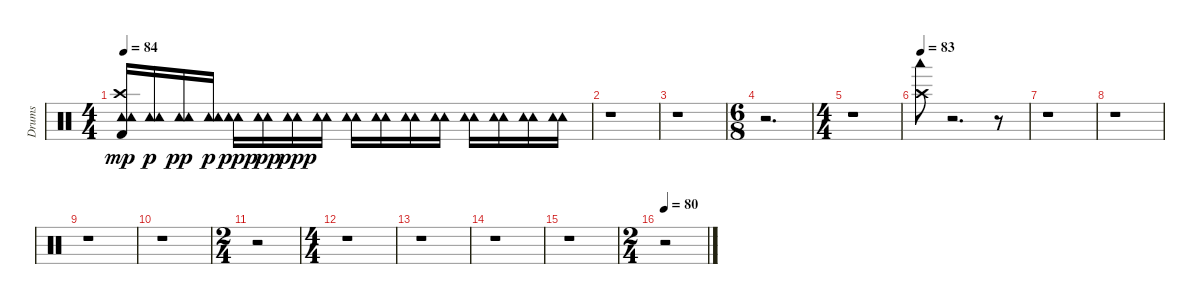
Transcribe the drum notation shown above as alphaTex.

\track ("Drums" "Drums") {instrument percussion}
\staff {score}
\articulation defaults
\ts (4 4)
\tempo 84
\clef neutral
\ks c
("Kick (hit) 2" "Crash high (hit)" "Tambourine (hit)" "Tambourine (hit)").16{dy mp} ("Tambourine (hit)" "Tambourine (hit)").16{dy p} ("Tambourine (hit)" "Tambourine (hit)").16{dy pp} ("Tambourine (hit)" "Tambourine (hit)").16{dy p} ("Tambourine (hit)" "Tambourine (hit)").16{dy ppp} ("Tambourine (hit)" "Tambourine (hit)").16{dy pp} ("Tambourine (hit)" "Tambourine (hit)").16{dy ppp} ("Tambourine (hit)" "Tambourine (hit)").16 ("Tambourine (hit)" "Tambourine (hit)").16 ("Tambourine (hit)" "Tambourine (hit)").16 ("Tambourine (hit)" "Tambourine (hit)").16 ("Tambourine (hit)" "Tambourine (hit)").16 ("Tambourine (hit)" "Tambourine (hit)").16 ("Tambourine (hit)" "Tambourine (hit)").16 ("Tambourine (hit)" "Tambourine (hit)").16 ("Tambourine (hit)" "Tambourine (hit)").16 |
r.1 |
r.1 |
\ts (6 8)
r.2{d} |
\ts (4 4)
r.1 |
\tempo 83
("Crash high (hit)" "Woodblock low (hit)").8 r.2{d} r.8 |
r.1 |
r.1 |
r.1 |
r.1 |
\ts (2 4)
r.2 |
\ts (4 4)
r.1 |
r.1 |
r.1 |
r.1 |
\ts (2 4)
\tempo 80
r.2
